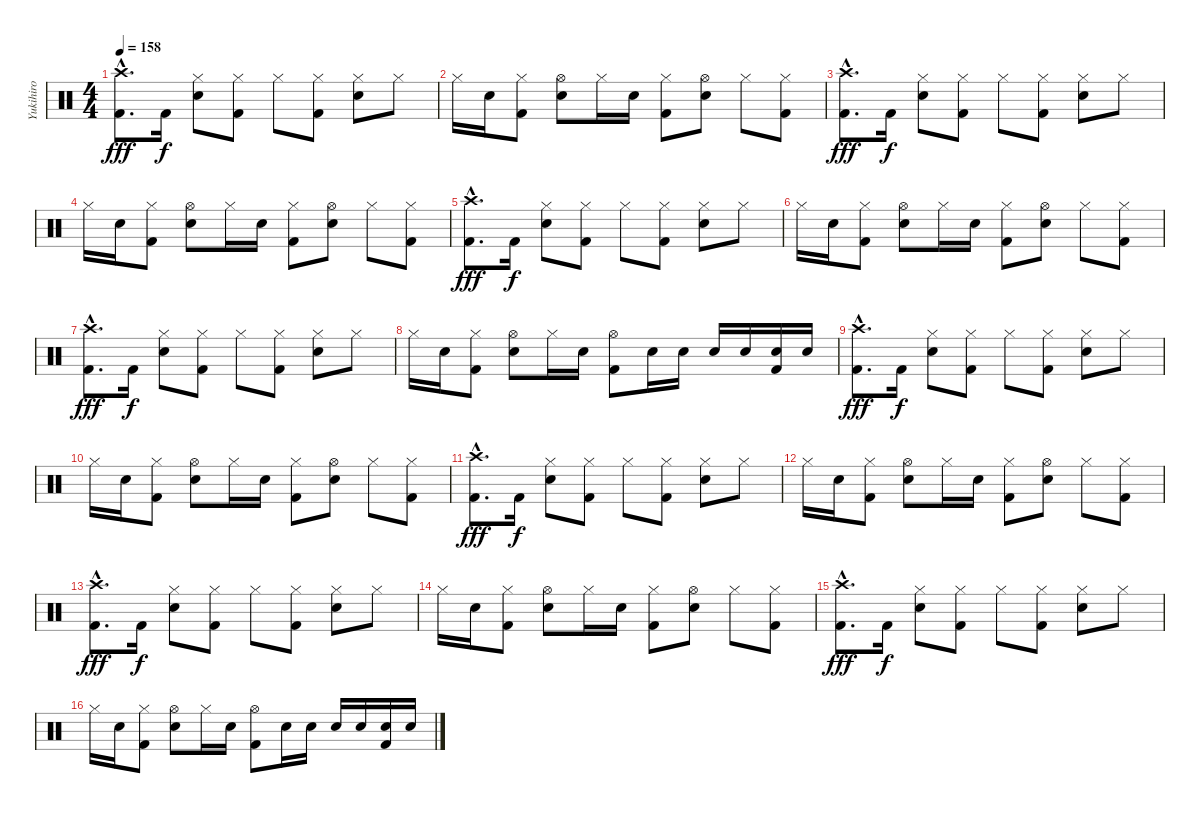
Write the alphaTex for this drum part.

\track ("Yukihiro" "Yukihiro") {instrument percussion}
\staff {score}
\articulation defaults
\ts (4 4)
\tempo 158
\clef neutral
\ks c
("Crash high (hit)"{hac} "Kick (hit) 2"{hac}).8{d dy fff} "Kick (hit) 2".16{dy f} ("Hi-Hat (closed)" "Snare (hit) 2").8 ("Hi-Hat (closed)" "Kick (hit) 2").8 "Hi-Hat (closed)".8 ("Hi-Hat (closed)" "Kick (hit) 2").8 ("Hi-Hat (closed)" "Snare (hit) 2").8 "Hi-Hat (closed)".8 |
"Hi-Hat (closed)".16 "Snare (hit) 2".16 ("Hi-Hat (closed)" "Kick (hit) 2").8 ("Hi-Hat (open)" "Snare (hit) 2").8 "Hi-Hat (closed)".16 "Snare (hit) 2".16 ("Hi-Hat (closed)" "Kick (hit) 2").8 ("Hi-Hat (open)" "Snare (hit) 2").8 "Hi-Hat (closed)".8 ("Hi-Hat (closed)" "Kick (hit) 2").8 |
("Crash high (hit)"{hac} "Kick (hit) 2"{hac}).8{d dy fff} "Kick (hit) 2".16{dy f} ("Hi-Hat (closed)" "Snare (hit) 2").8 ("Hi-Hat (closed)" "Kick (hit) 2").8 "Hi-Hat (closed)".8 ("Hi-Hat (closed)" "Kick (hit) 2").8 ("Hi-Hat (closed)" "Snare (hit) 2").8 "Hi-Hat (closed)".8 |
"Hi-Hat (closed)".16 "Snare (hit) 2".16 ("Hi-Hat (closed)" "Kick (hit) 2").8 ("Hi-Hat (open)" "Snare (hit) 2").8 "Hi-Hat (closed)".16 "Snare (hit) 2".16 ("Hi-Hat (closed)" "Kick (hit) 2").8 ("Hi-Hat (open)" "Snare (hit) 2").8 "Hi-Hat (closed)".8 ("Hi-Hat (closed)" "Kick (hit) 2").8 |
("Crash high (hit)"{hac} "Kick (hit) 2"{hac}).8{d dy fff} "Kick (hit) 2".16{dy f} ("Hi-Hat (closed)" "Snare (hit) 2").8 ("Hi-Hat (closed)" "Kick (hit) 2").8 "Hi-Hat (closed)".8 ("Hi-Hat (closed)" "Kick (hit) 2").8 ("Hi-Hat (closed)" "Snare (hit) 2").8 "Hi-Hat (closed)".8 |
"Hi-Hat (closed)".16 "Snare (hit) 2".16 ("Hi-Hat (closed)" "Kick (hit) 2").8 ("Hi-Hat (open)" "Snare (hit) 2").8 "Hi-Hat (closed)".16 "Snare (hit) 2".16 ("Hi-Hat (closed)" "Kick (hit) 2").8 ("Hi-Hat (open)" "Snare (hit) 2").8 "Hi-Hat (closed)".8 ("Hi-Hat (closed)" "Kick (hit) 2").8 |
("Crash high (hit)"{hac} "Kick (hit) 2"{hac}).8{d dy fff} "Kick (hit) 2".16{dy f} ("Hi-Hat (closed)" "Snare (hit) 2").8 ("Hi-Hat (closed)" "Kick (hit) 2").8 "Hi-Hat (closed)".8 ("Hi-Hat (closed)" "Kick (hit) 2").8 ("Hi-Hat (closed)" "Snare (hit) 2").8 "Hi-Hat (closed)".8 |
"Hi-Hat (closed)".16 "Snare (hit) 2".16 ("Hi-Hat (closed)" "Kick (hit) 2").8 ("Hi-Hat (open)" "Snare (hit) 2").8 "Hi-Hat (closed)".16 "Snare (hit) 2".16 ("Hi-Hat (open)" "Kick (hit) 2").8 "Snare (hit) 2".16 "Snare (hit) 2".16 "Snare (hit) 2".16 "Snare (hit) 2".16 ("Snare (hit) 2" "Kick (hit) 2").16 "Snare (hit) 2".16 |
("Crash high (hit)"{hac} "Kick (hit) 2"{hac}).8{d dy fff} "Kick (hit) 2".16{dy f} ("Hi-Hat (closed)" "Snare (hit) 2").8 ("Hi-Hat (closed)" "Kick (hit) 2").8 "Hi-Hat (closed)".8 ("Hi-Hat (closed)" "Kick (hit) 2").8 ("Hi-Hat (closed)" "Snare (hit) 2").8 "Hi-Hat (closed)".8 |
"Hi-Hat (closed)".16 "Snare (hit) 2".16 ("Hi-Hat (closed)" "Kick (hit) 2").8 ("Hi-Hat (open)" "Snare (hit) 2").8 "Hi-Hat (closed)".16 "Snare (hit) 2".16 ("Hi-Hat (closed)" "Kick (hit) 2").8 ("Hi-Hat (open)" "Snare (hit) 2").8 "Hi-Hat (closed)".8 ("Hi-Hat (closed)" "Kick (hit) 2").8 |
("Crash high (hit)"{hac} "Kick (hit) 2"{hac}).8{d dy fff} "Kick (hit) 2".16{dy f} ("Hi-Hat (closed)" "Snare (hit) 2").8 ("Hi-Hat (closed)" "Kick (hit) 2").8 "Hi-Hat (closed)".8 ("Hi-Hat (closed)" "Kick (hit) 2").8 ("Hi-Hat (closed)" "Snare (hit) 2").8 "Hi-Hat (closed)".8 |
"Hi-Hat (closed)".16 "Snare (hit) 2".16 ("Hi-Hat (closed)" "Kick (hit) 2").8 ("Hi-Hat (open)" "Snare (hit) 2").8 "Hi-Hat (closed)".16 "Snare (hit) 2".16 ("Hi-Hat (closed)" "Kick (hit) 2").8 ("Hi-Hat (open)" "Snare (hit) 2").8 "Hi-Hat (closed)".8 ("Hi-Hat (closed)" "Kick (hit) 2").8 |
("Crash high (hit)"{hac} "Kick (hit) 2"{hac}).8{d dy fff} "Kick (hit) 2".16{dy f} ("Hi-Hat (closed)" "Snare (hit) 2").8 ("Hi-Hat (closed)" "Kick (hit) 2").8 "Hi-Hat (closed)".8 ("Hi-Hat (closed)" "Kick (hit) 2").8 ("Hi-Hat (closed)" "Snare (hit) 2").8 "Hi-Hat (closed)".8 |
"Hi-Hat (closed)".16 "Snare (hit) 2".16 ("Hi-Hat (closed)" "Kick (hit) 2").8 ("Hi-Hat (open)" "Snare (hit) 2").8 "Hi-Hat (closed)".16 "Snare (hit) 2".16 ("Hi-Hat (closed)" "Kick (hit) 2").8 ("Hi-Hat (open)" "Snare (hit) 2").8 "Hi-Hat (closed)".8 ("Hi-Hat (closed)" "Kick (hit) 2").8 |
("Crash high (hit)"{hac} "Kick (hit) 2"{hac}).8{d dy fff} "Kick (hit) 2".16{dy f} ("Hi-Hat (closed)" "Snare (hit) 2").8 ("Hi-Hat (closed)" "Kick (hit) 2").8 "Hi-Hat (closed)".8 ("Hi-Hat (closed)" "Kick (hit) 2").8 ("Hi-Hat (closed)" "Snare (hit) 2").8 "Hi-Hat (closed)".8 |
"Hi-Hat (closed)".16 "Snare (hit) 2".16 ("Hi-Hat (closed)" "Kick (hit) 2").8 ("Hi-Hat (open)" "Snare (hit) 2").8 "Hi-Hat (closed)".16 "Snare (hit) 2".16 ("Hi-Hat (open)" "Kick (hit) 2").8 "Snare (hit) 2".16 "Snare (hit) 2".16 "Snare (hit) 2".16 "Snare (hit) 2".16 ("Snare (hit) 2" "Kick (hit) 2").16 "Snare (hit) 2".16
